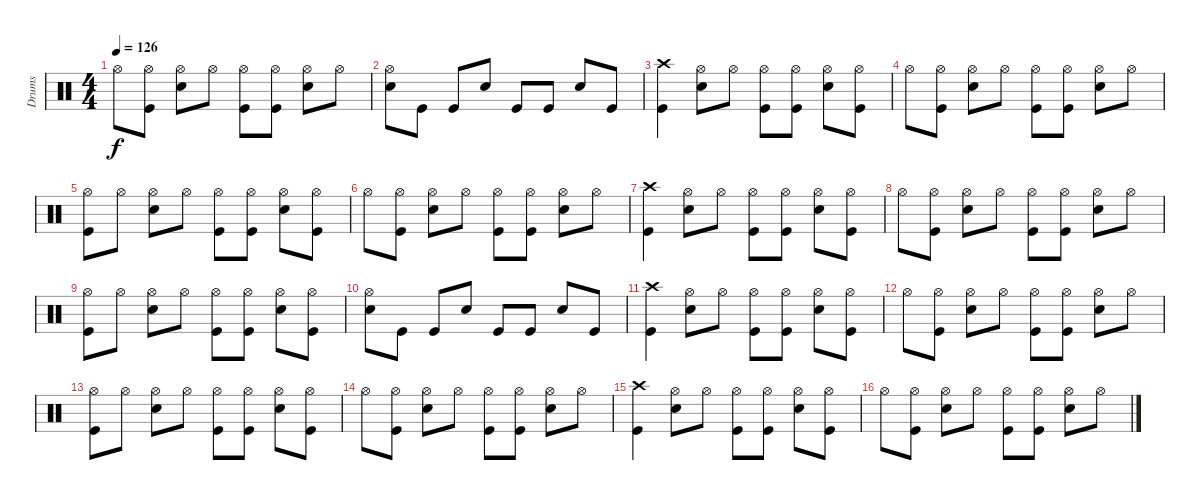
\track ("Drums" "Drums") {instrument percussion}
\staff {score}
\articulation defaults
\ts (4 4)
\tempo 126
\clef neutral
\ks c "Hi-Hat (open)".8{dy f}
("Hi-Hat (open)" "Kick (hit)").8 ("Snare (hit) 2" "Hi-Hat (open)").8 "Hi-Hat (open)".8 ("Hi-Hat (open)" "Kick (hit)").8 ("Hi-Hat (open)" "Kick (hit)").8 ("Hi-Hat (open)" "Snare (hit) 2").8 "Hi-Hat (open)".8 |
("Snare (hit) 2" "Hi-Hat (open)").8 "Kick (hit)".8 "Kick (hit)".8 "Snare (hit) 2".8 "Kick (hit)".8 "Kick (hit)".8 "Snare (hit) 2".8 "Kick (hit)".8 |
("Crash high (hit)" "Kick (hit)").4 ("Hi-Hat (open)" "Snare (hit) 2").8 "Hi-Hat (open)".8 ("Hi-Hat (open)" "Kick (hit)").8 ("Hi-Hat (open)" "Kick (hit)").8 ("Hi-Hat (open)" "Snare (hit) 2").8 ("Hi-Hat (open)" "Kick (hit)").8 |
"Hi-Hat (open)".8 ("Hi-Hat (open)" "Kick (hit)").8 ("Snare (hit) 2" "Hi-Hat (open)").8 "Hi-Hat (open)".8 ("Hi-Hat (open)" "Kick (hit)").8 ("Hi-Hat (open)" "Kick (hit)").8 ("Hi-Hat (open)" "Snare (hit) 2").8 "Hi-Hat (open)".8 |
("Hi-Hat (open)" "Kick (hit)").8 "Hi-Hat (open)".8 ("Hi-Hat (open)" "Snare (hit) 2").8 "Hi-Hat (open)".8 ("Hi-Hat (open)" "Kick (hit)").8 ("Hi-Hat (open)" "Kick (hit)").8 ("Hi-Hat (open)" "Snare (hit) 2").8 ("Hi-Hat (open)" "Kick (hit)").8 |
"Hi-Hat (open)".8 ("Hi-Hat (open)" "Kick (hit)").8 ("Snare (hit) 2" "Hi-Hat (open)").8 "Hi-Hat (open)".8 ("Hi-Hat (open)" "Kick (hit)").8 ("Hi-Hat (open)" "Kick (hit)").8 ("Hi-Hat (open)" "Snare (hit) 2").8 "Hi-Hat (open)".8 |
("Crash high (hit)" "Kick (hit)").4 ("Hi-Hat (open)" "Snare (hit) 2").8 "Hi-Hat (open)".8 ("Hi-Hat (open)" "Kick (hit)").8 ("Hi-Hat (open)" "Kick (hit)").8 ("Hi-Hat (open)" "Snare (hit) 2").8 ("Hi-Hat (open)" "Kick (hit)").8 |
"Hi-Hat (open)".8 ("Hi-Hat (open)" "Kick (hit)").8 ("Snare (hit) 2" "Hi-Hat (open)").8 "Hi-Hat (open)".8 ("Hi-Hat (open)" "Kick (hit)").8 ("Hi-Hat (open)" "Kick (hit)").8 ("Hi-Hat (open)" "Snare (hit) 2").8 "Hi-Hat (open)".8 |
("Hi-Hat (open)" "Kick (hit)").8 "Hi-Hat (open)".8 ("Hi-Hat (open)" "Snare (hit) 2").8 "Hi-Hat (open)".8 ("Hi-Hat (open)" "Kick (hit)").8 ("Hi-Hat (open)" "Kick (hit)").8 ("Hi-Hat (open)" "Snare (hit) 2").8 ("Hi-Hat (open)" "Kick (hit)").8 |
("Snare (hit) 2" "Hi-Hat (open)").8 "Kick (hit)".8 "Kick (hit)".8 "Snare (hit) 2".8 "Kick (hit)".8 "Kick (hit)".8 "Snare (hit) 2".8 "Kick (hit)".8 |
("Crash high (hit)" "Kick (hit)").4 ("Hi-Hat (open)" "Snare (hit) 2").8 "Hi-Hat (open)".8 ("Hi-Hat (open)" "Kick (hit)").8 ("Hi-Hat (open)" "Kick (hit)").8 ("Hi-Hat (open)" "Snare (hit) 2").8 ("Hi-Hat (open)" "Kick (hit)").8 |
"Hi-Hat (open)".8 ("Hi-Hat (open)" "Kick (hit)").8 ("Snare (hit) 2" "Hi-Hat (open)").8 "Hi-Hat (open)".8 ("Hi-Hat (open)" "Kick (hit)").8 ("Hi-Hat (open)" "Kick (hit)").8 ("Hi-Hat (open)" "Snare (hit) 2").8 "Hi-Hat (open)".8 |
("Hi-Hat (open)" "Kick (hit)").8 "Hi-Hat (open)".8 ("Hi-Hat (open)" "Snare (hit) 2").8 "Hi-Hat (open)".8 ("Hi-Hat (open)" "Kick (hit)").8 ("Hi-Hat (open)" "Kick (hit)").8 ("Hi-Hat (open)" "Snare (hit) 2").8 ("Hi-Hat (open)" "Kick (hit)").8 |
"Hi-Hat (open)".8 ("Hi-Hat (open)" "Kick (hit)").8 ("Snare (hit) 2" "Hi-Hat (open)").8 "Hi-Hat (open)".8 ("Hi-Hat (open)" "Kick (hit)").8 ("Hi-Hat (open)" "Kick (hit)").8 ("Hi-Hat (open)" "Snare (hit) 2").8 "Hi-Hat (open)".8 |
("Crash high (hit)" "Kick (hit)").4 ("Hi-Hat (open)" "Snare (hit) 2").8 "Hi-Hat (open)".8 ("Hi-Hat (open)" "Kick (hit)").8 ("Hi-Hat (open)" "Kick (hit)").8 ("Hi-Hat (open)" "Snare (hit) 2").8 ("Hi-Hat (open)" "Kick (hit)").8 |
"Hi-Hat (open)".8 ("Hi-Hat (open)" "Kick (hit)").8 ("Snare (hit) 2" "Hi-Hat (open)").8 "Hi-Hat (open)".8 ("Hi-Hat (open)" "Kick (hit)").8 ("Hi-Hat (open)" "Kick (hit)").8 ("Hi-Hat (open)" "Snare (hit) 2").8 "Hi-Hat (open)".8
